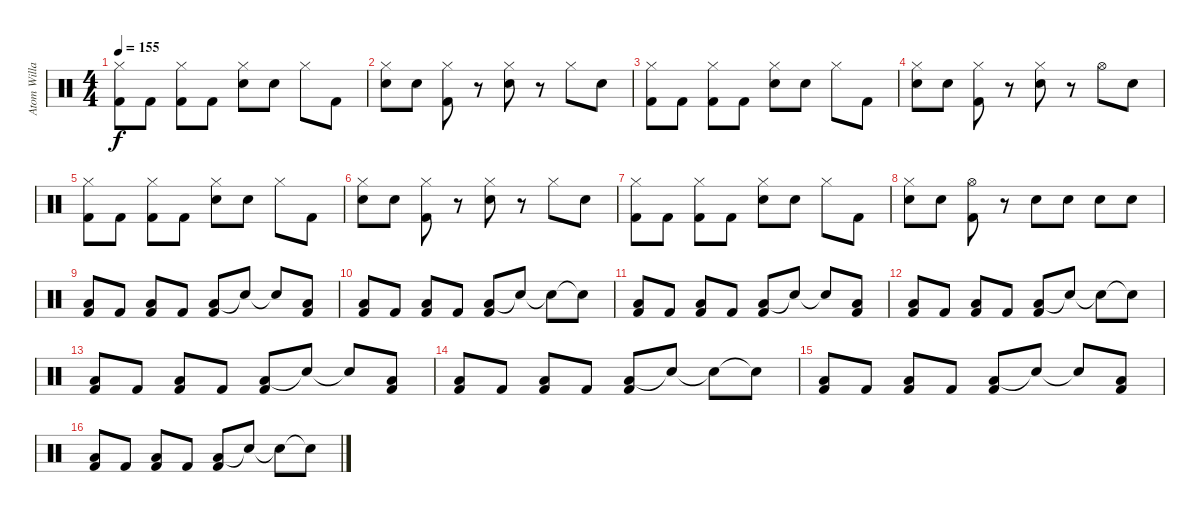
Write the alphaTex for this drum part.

\track ("Atom Willard Drums" "Atom Willa") {instrument percussion}
\staff {score}
\articulation defaults
\ts (4 4)
\tempo 155
\clef neutral
\ks c
("Kick (hit) 2" "Hi-Hat (closed)").8{dy f} "Kick (hit) 2".8 ("Kick (hit) 2" "Hi-Hat (closed)").8 "Kick (hit) 2".8 ("Electric Snare (hit)" "Hi-Hat (closed)").8 "Snare (hit)".8 "Hi-Hat (closed)".8 "Kick (hit) 2".8 |
("Snare (hit)" "Hi-Hat (closed)").8 "Electric Snare (hit)".8 ("Kick (hit) 2" "Hi-Hat (closed)").8 r.8 ("Electric Snare (hit)" "Hi-Hat (closed)").8 r.8 "Hi-Hat (closed)".8 "Snare (hit)".8 |
("Kick (hit) 2" "Hi-Hat (closed)").8 "Kick (hit) 2".8 ("Kick (hit) 2" "Hi-Hat (closed)").8 "Kick (hit) 2".8 ("Electric Snare (hit)" "Hi-Hat (closed)").8 "Snare (hit)".8 "Hi-Hat (closed)".8 "Kick (hit) 2".8 |
("Snare (hit)" "Hi-Hat (closed)").8 "Electric Snare (hit)".8 ("Kick (hit) 2" "Hi-Hat (closed)").8 r.8 ("Electric Snare (hit)" "Hi-Hat (closed)").8 r.8 "Hi-Hat (open)".8 "Snare (hit)".8 |
("Kick (hit) 2" "Hi-Hat (closed)").8 "Kick (hit) 2".8 ("Kick (hit) 2" "Hi-Hat (closed)").8 "Kick (hit) 2".8 ("Electric Snare (hit)" "Hi-Hat (closed)").8 "Snare (hit)".8 "Hi-Hat (closed)".8 "Kick (hit) 2".8 |
("Snare (hit)" "Hi-Hat (closed)").8 "Electric Snare (hit)".8 ("Kick (hit) 2" "Hi-Hat (closed)").8 r.8 ("Electric Snare (hit)" "Hi-Hat (closed)").8 r.8 "Hi-Hat (closed)".8 "Snare (hit)".8 |
("Kick (hit) 2" "Hi-Hat (closed)").8 "Kick (hit) 2".8 ("Kick (hit) 2" "Hi-Hat (closed)").8 "Kick (hit) 2".8 ("Electric Snare (hit)" "Hi-Hat (closed)").8 "Snare (hit)".8 "Hi-Hat (closed)".8 "Kick (hit) 2".8 |
("Snare (hit)" "Hi-Hat (closed)").8 "Electric Snare (hit)".8 ("Kick (hit) 2" "Hi-Hat (open)").8 r.8 "Electric Snare (hit)".8 "Electric Snare (hit)".8 "Electric Snare (hit)".8 "Snare (hit)".8 |
("Low Tom (hit)" "Kick (hit) 2").8 "Kick (hit) 2".8 ("Low Tom (hit)" "Kick (hit) 2").8 "Kick (hit) 2".8 ("Low Tom (hit)" "Kick (hit) 2").8 "Snare (hit)"{t}.8 "Snare (hit)"{t}.8 ("Low Tom (hit)" "Kick (hit) 2").8 |
("Low Tom (hit)" "Kick (hit) 2").8 "Kick (hit) 2".8 ("Low Tom (hit)" "Kick (hit) 2").8 "Kick (hit) 2".8 ("Low Tom (hit)" "Kick (hit) 2").8 "Snare (hit)"{t}.8 "Snare (hit)"{t}.8 "Snare (hit)"{t}.8 |
("Low Tom (hit)" "Kick (hit) 2").8 "Kick (hit) 2".8 ("Low Tom (hit)" "Kick (hit) 2").8 "Kick (hit) 2".8 ("Low Tom (hit)" "Kick (hit) 2").8 "Snare (hit)"{t}.8 "Snare (hit)"{t}.8 ("Low Tom (hit)" "Kick (hit) 2").8 |
("Low Tom (hit)" "Kick (hit) 2").8 "Kick (hit) 2".8 ("Low Tom (hit)" "Kick (hit) 2").8 "Kick (hit) 2".8 ("Low Tom (hit)" "Kick (hit) 2").8 "Snare (hit)"{t}.8 "Snare (hit)"{t}.8 "Snare (hit)"{t}.8 |
("Low Tom (hit)" "Kick (hit) 2").8 "Kick (hit) 2".8 ("Low Tom (hit)" "Kick (hit) 2").8 "Kick (hit) 2".8 ("Low Tom (hit)" "Kick (hit) 2").8 "Snare (hit)"{t}.8 "Snare (hit)"{t}.8 ("Low Tom (hit)" "Kick (hit) 2").8 |
("Low Tom (hit)" "Kick (hit) 2").8 "Kick (hit) 2".8 ("Low Tom (hit)" "Kick (hit) 2").8 "Kick (hit) 2".8 ("Low Tom (hit)" "Kick (hit) 2").8 "Snare (hit)"{t}.8 "Snare (hit)"{t}.8 "Snare (hit)"{t}.8 |
("Low Tom (hit)" "Kick (hit) 2").8 "Kick (hit) 2".8 ("Low Tom (hit)" "Kick (hit) 2").8 "Kick (hit) 2".8 ("Low Tom (hit)" "Kick (hit) 2").8 "Snare (hit)"{t}.8 "Snare (hit)"{t}.8 ("Low Tom (hit)" "Kick (hit) 2").8 |
("Low Tom (hit)" "Kick (hit) 2").8 "Kick (hit) 2".8 ("Low Tom (hit)" "Kick (hit) 2").8 "Kick (hit) 2".8 ("Low Tom (hit)" "Kick (hit) 2").8 "Snare (hit)"{t}.8 "Snare (hit)"{t}.8 "Snare (hit)"{t}.8
